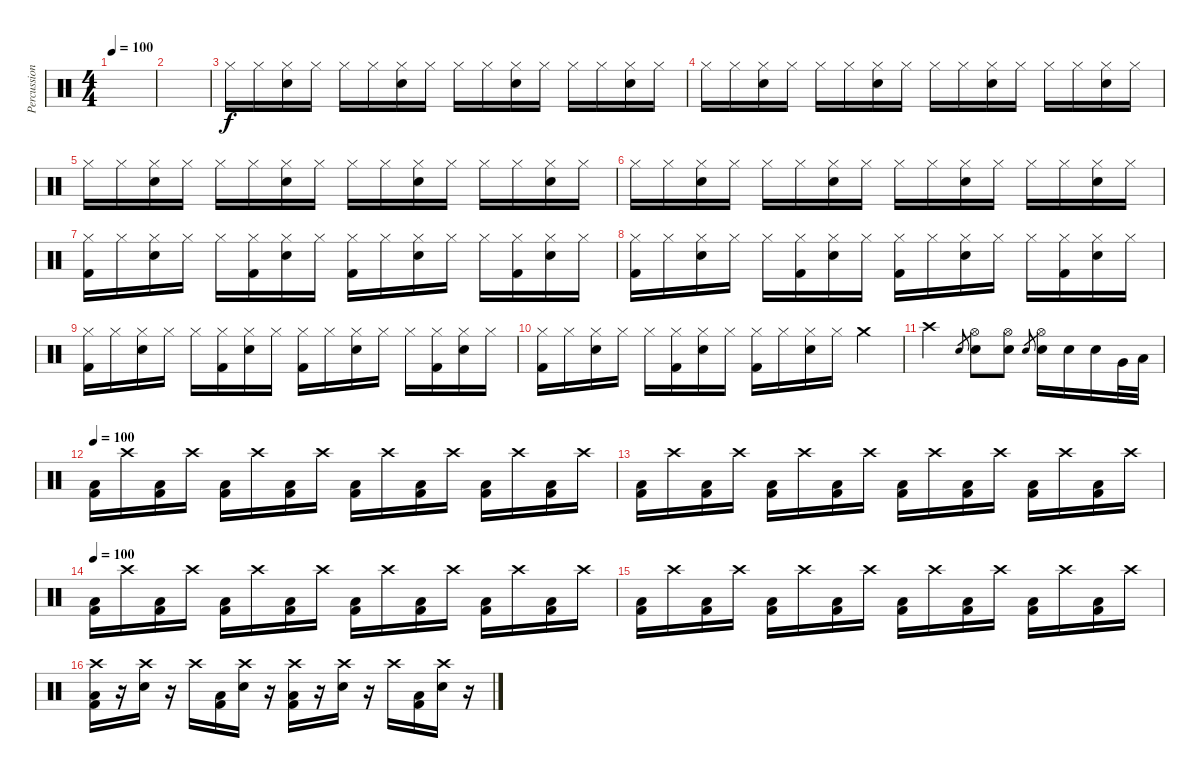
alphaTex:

\track ("Percussions" "Percussion") {instrument percussion}
\staff {score}
\articulation defaults
\ts (4 4)
\tempo 100
\clef neutral
\ks c
|
|
"Hi-Hat (closed)".16 "Hi-Hat (closed)".16 ("Hi-Hat (closed)" "Electric Snare (hit)").16 "Hi-Hat (closed)".16 "Hi-Hat (closed)".16 "Hi-Hat (closed)".16 ("Hi-Hat (closed)" "Electric Snare (hit)").16 "Hi-Hat (closed)".16 "Hi-Hat (closed)".16 "Hi-Hat (closed)".16 ("Hi-Hat (closed)" "Electric Snare (hit)").16 "Hi-Hat (closed)".16 "Hi-Hat (closed)".16 "Hi-Hat (closed)".16 ("Hi-Hat (closed)" "Electric Snare (hit)").16 "Hi-Hat (closed)".16 |
"Hi-Hat (closed)".16 "Hi-Hat (closed)".16 ("Hi-Hat (closed)" "Electric Snare (hit)").16 "Hi-Hat (closed)".16 "Hi-Hat (closed)".16 "Hi-Hat (closed)".16 ("Hi-Hat (closed)" "Electric Snare (hit)").16 "Hi-Hat (closed)".16 "Hi-Hat (closed)".16 "Hi-Hat (closed)".16 ("Hi-Hat (closed)" "Electric Snare (hit)").16 "Hi-Hat (closed)".16 "Hi-Hat (closed)".16 "Hi-Hat (closed)".16 ("Hi-Hat (closed)" "Electric Snare (hit)").16 "Hi-Hat (closed)".16 |
"Hi-Hat (closed)".16 "Hi-Hat (closed)".16 ("Hi-Hat (closed)" "Electric Snare (hit)").16 "Hi-Hat (closed)".16 "Hi-Hat (closed)".16 "Hi-Hat (closed)".16 ("Hi-Hat (closed)" "Electric Snare (hit)").16 "Hi-Hat (closed)".16 "Hi-Hat (closed)".16 "Hi-Hat (closed)".16 ("Hi-Hat (closed)" "Electric Snare (hit)").16 "Hi-Hat (closed)".16 "Hi-Hat (closed)".16 "Hi-Hat (closed)".16 ("Hi-Hat (closed)" "Electric Snare (hit)").16 "Hi-Hat (closed)".16 |
"Hi-Hat (closed)".16 "Hi-Hat (closed)".16 ("Hi-Hat (closed)" "Electric Snare (hit)").16 "Hi-Hat (closed)".16 "Hi-Hat (closed)".16 "Hi-Hat (closed)".16 ("Hi-Hat (closed)" "Electric Snare (hit)").16 "Hi-Hat (closed)".16 "Hi-Hat (closed)".16 "Hi-Hat (closed)".16 ("Hi-Hat (closed)" "Electric Snare (hit)").16 "Hi-Hat (closed)".16 "Hi-Hat (closed)".16 "Hi-Hat (closed)".16 ("Hi-Hat (closed)" "Electric Snare (hit)").16 "Hi-Hat (closed)".16 |
("Hi-Hat (closed)" "Kick (hit) 2").16 "Hi-Hat (closed)".16 ("Hi-Hat (closed)" "Electric Snare (hit)").16 "Hi-Hat (closed)".16 "Hi-Hat (closed)".16 ("Hi-Hat (closed)" "Kick (hit) 2").16 ("Hi-Hat (closed)" "Electric Snare (hit)").16 "Hi-Hat (closed)".16 ("Hi-Hat (closed)" "Kick (hit) 2").16 "Hi-Hat (closed)".16 ("Hi-Hat (closed)" "Electric Snare (hit)").16 "Hi-Hat (closed)".16 "Hi-Hat (closed)".16 ("Hi-Hat (closed)" "Kick (hit) 2").16 ("Hi-Hat (closed)" "Electric Snare (hit)").16 "Hi-Hat (closed)".16 |
("Hi-Hat (closed)" "Kick (hit) 2").16 "Hi-Hat (closed)".16 ("Hi-Hat (closed)" "Electric Snare (hit)").16 "Hi-Hat (closed)".16 "Hi-Hat (closed)".16 ("Hi-Hat (closed)" "Kick (hit) 2").16 ("Hi-Hat (closed)" "Electric Snare (hit)").16 "Hi-Hat (closed)".16 ("Hi-Hat (closed)" "Kick (hit) 2").16 "Hi-Hat (closed)".16 ("Hi-Hat (closed)" "Electric Snare (hit)").16 "Hi-Hat (closed)".16 "Hi-Hat (closed)".16 ("Hi-Hat (closed)" "Kick (hit) 2").16 ("Hi-Hat (closed)" "Electric Snare (hit)").16 "Hi-Hat (closed)".16 |
("Hi-Hat (closed)" "Kick (hit) 2").16 "Hi-Hat (closed)".16 ("Hi-Hat (closed)" "Electric Snare (hit)").16 "Hi-Hat (closed)".16 "Hi-Hat (closed)".16 ("Hi-Hat (closed)" "Kick (hit) 2").16 ("Hi-Hat (closed)" "Electric Snare (hit)").16 "Hi-Hat (closed)".16 ("Hi-Hat (closed)" "Kick (hit) 2").16 "Hi-Hat (closed)".16 ("Hi-Hat (closed)" "Electric Snare (hit)").16 "Hi-Hat (closed)".16 "Hi-Hat (closed)".16 ("Hi-Hat (closed)" "Kick (hit) 2").16 ("Hi-Hat (closed)" "Electric Snare (hit)").16 "Hi-Hat (closed)".16 |
("Hi-Hat (closed)" "Kick (hit) 2").16 "Hi-Hat (closed)".16 ("Hi-Hat (closed)" "Electric Snare (hit)").16 "Hi-Hat (closed)".16 "Hi-Hat (closed)".16 ("Hi-Hat (closed)" "Kick (hit) 2").16 ("Hi-Hat (closed)" "Electric Snare (hit)").16 "Hi-Hat (closed)".16 ("Hi-Hat (closed)" "Kick (hit) 2").16 "Hi-Hat (closed)".16 ("Hi-Hat (closed)" "Electric Snare (hit)").16 "Hi-Hat (closed)".16 "Crash medium (hit)".4 |
"Crash high (hit)".2 "Electric Snare (hit)".8{gr} ("Hi-Hat (open)" "Electric Snare (hit)").8 ("Hi-Hat (open)" "Electric Snare (hit)").8 "Electric Snare (hit)".8{gr} ("Hi-Hat (open)" "Electric Snare (hit)").16 "Electric Snare (hit)".16 "Electric Snare (hit)".16 "Very Low Tom (hit)".32 "Low Floor Tom (hit)".32 |
\tempo 100
("Kick (hit) 2" "Low Floor Tom (hit)").16 "Crash high (hit)".16 ("Kick (hit) 2" "Low Floor Tom (hit)").16 "Crash high (hit)".16 ("Kick (hit) 2" "Low Floor Tom (hit)").16 "Crash high (hit)".16 ("Kick (hit) 2" "Low Floor Tom (hit)").16 "Crash high (hit)".16 ("Kick (hit) 2" "Low Floor Tom (hit)").16 "Crash high (hit)".16 ("Kick (hit) 2" "Low Floor Tom (hit)").16 "Crash high (hit)".16 ("Kick (hit) 2" "Low Floor Tom (hit)").16 "Crash high (hit)".16 ("Kick (hit) 2" "Low Floor Tom (hit)").16 "Crash high (hit)".16 |
("Kick (hit) 2" "Low Floor Tom (hit)").16 "Crash high (hit)".16 ("Kick (hit) 2" "Low Floor Tom (hit)").16 "Crash high (hit)".16 ("Kick (hit) 2" "Low Floor Tom (hit)").16 "Crash high (hit)".16 ("Kick (hit) 2" "Low Floor Tom (hit)").16 "Crash high (hit)".16 ("Kick (hit) 2" "Low Floor Tom (hit)").16 "Crash high (hit)".16 ("Kick (hit) 2" "Low Floor Tom (hit)").16 "Crash high (hit)".16 ("Kick (hit) 2" "Low Floor Tom (hit)").16 "Crash high (hit)".16 ("Kick (hit) 2" "Low Floor Tom (hit)").16 "Crash high (hit)".16 |
\tempo 100
("Kick (hit) 2" "Low Floor Tom (hit)").16 "Crash high (hit)".16 ("Kick (hit) 2" "Low Floor Tom (hit)").16 "Crash high (hit)".16 ("Kick (hit) 2" "Low Floor Tom (hit)").16 "Crash high (hit)".16 ("Kick (hit) 2" "Low Floor Tom (hit)").16 "Crash high (hit)".16 ("Kick (hit) 2" "Low Floor Tom (hit)").16 "Crash high (hit)".16 ("Kick (hit) 2" "Low Floor Tom (hit)").16 "Crash high (hit)".16 ("Kick (hit) 2" "Low Floor Tom (hit)").16 "Crash high (hit)".16 ("Kick (hit) 2" "Low Floor Tom (hit)").16 "Crash high (hit)".16 |
("Kick (hit) 2" "Low Floor Tom (hit)").16 "Crash high (hit)".16 ("Kick (hit) 2" "Low Floor Tom (hit)").16 "Crash high (hit)".16 ("Kick (hit) 2" "Low Floor Tom (hit)").16 "Crash high (hit)".16 ("Kick (hit) 2" "Low Floor Tom (hit)").16 "Crash high (hit)".16 ("Kick (hit) 2" "Low Floor Tom (hit)").16 "Crash high (hit)".16 ("Kick (hit) 2" "Low Floor Tom (hit)").16 "Crash high (hit)".16 ("Kick (hit) 2" "Low Floor Tom (hit)").16 "Crash high (hit)".16 ("Kick (hit) 2" "Low Floor Tom (hit)").16 "Crash high (hit)".16 |
("Crash high (hit)" "Kick (hit) 2" "Low Floor Tom (hit)").16 r.16 ("Crash high (hit)" "Electric Snare (hit)").16 r.16 "Crash high (hit)".16 ("Kick (hit) 2" "Low Floor Tom (hit)").16 ("Crash high (hit)" "Electric Snare (hit)").16 r.16 ("Crash high (hit)" "Kick (hit) 2" "Low Floor Tom (hit)").16 r.16 ("Crash high (hit)" "Electric Snare (hit)").16 r.16 "Crash high (hit)".16 ("Kick (hit) 2" "Low Floor Tom (hit)").16 ("Crash high (hit)" "Electric Snare (hit)").16 r.16
